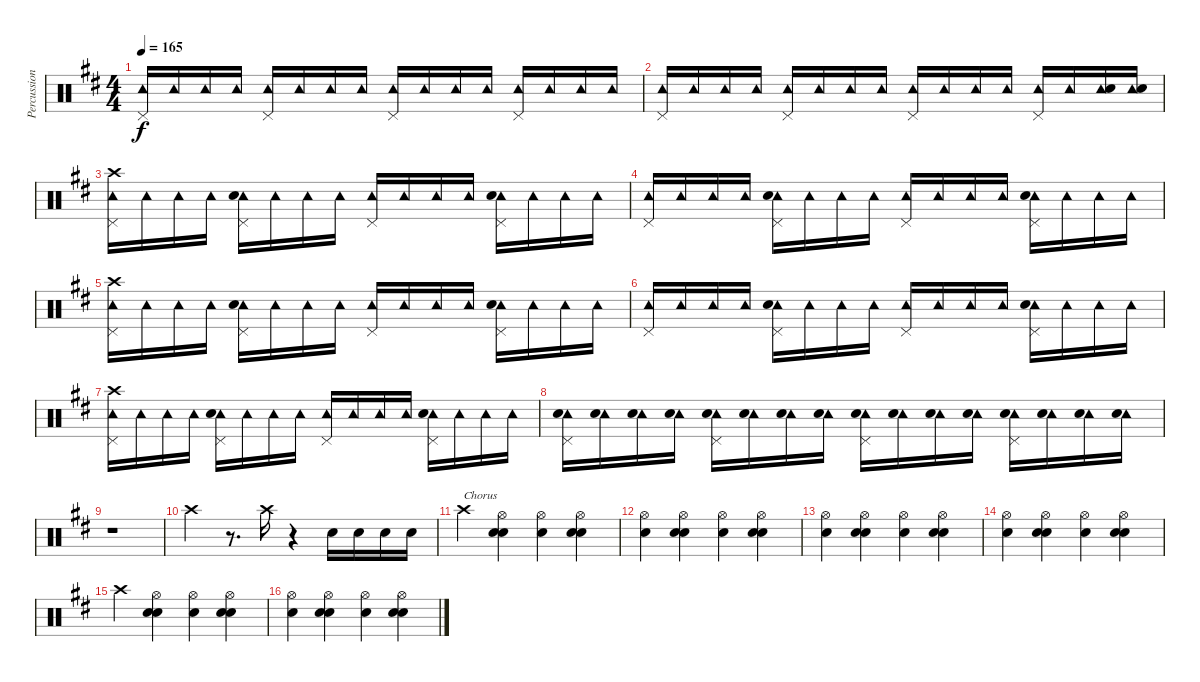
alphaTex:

\track ("Percussion" "Percussion") {instrument percussion}
\staff {score}
\articulation defaults
\ts (4 4)
\tempo 165
\clef neutral
\ks d
("Tambourine (hit)" "Pedal Hi-Hat (hit)").16{dy f} "Tambourine (hit)".16 "Tambourine (hit)".16 "Tambourine (hit)".16 ("Tambourine (hit)" "Pedal Hi-Hat (hit)").16 "Tambourine (hit)".16 "Tambourine (hit)".16 "Tambourine (hit)".16 ("Tambourine (hit)" "Pedal Hi-Hat (hit)").16 "Tambourine (hit)".16 "Tambourine (hit)".16 "Tambourine (hit)".16 ("Tambourine (hit)" "Pedal Hi-Hat (hit)").16 "Tambourine (hit)".16 "Tambourine (hit)".16 "Tambourine (hit)".16 |
("Tambourine (hit)" "Pedal Hi-Hat (hit)").16 "Tambourine (hit)".16 "Tambourine (hit)".16 "Tambourine (hit)".16 ("Tambourine (hit)" "Pedal Hi-Hat (hit)").16 "Tambourine (hit)".16 "Tambourine (hit)".16 "Tambourine (hit)".16 ("Tambourine (hit)" "Pedal Hi-Hat (hit)").16 "Tambourine (hit)".16 "Tambourine (hit)".16 "Tambourine (hit)".16 ("Tambourine (hit)" "Pedal Hi-Hat (hit)").16 "Tambourine (hit)".16 ("Tambourine (hit)" "Snare (hit) 2").16 ("Tambourine (hit)" "Snare (hit) 2").16 |
("Tambourine (hit)" "Pedal Hi-Hat (hit)" "Crash high (hit)").16 "Tambourine (hit)".16 "Tambourine (hit)".16 "Tambourine (hit)".16 ("Tambourine (hit)" "Snare (hit) 2" "Pedal Hi-Hat (hit)").16 "Tambourine (hit)".16 "Tambourine (hit)".16 "Tambourine (hit)".16 ("Tambourine (hit)" "Pedal Hi-Hat (hit)").16 "Tambourine (hit)".16 "Tambourine (hit)".16 "Tambourine (hit)".16 ("Tambourine (hit)" "Pedal Hi-Hat (hit)" "Snare (hit) 2").16 "Tambourine (hit)".16 "Tambourine (hit)".16 "Tambourine (hit)".16 |
("Tambourine (hit)" "Pedal Hi-Hat (hit)").16 "Tambourine (hit)".16 "Tambourine (hit)".16 "Tambourine (hit)".16 ("Tambourine (hit)" "Pedal Hi-Hat (hit)" "Snare (hit) 2").16 "Tambourine (hit)".16 "Tambourine (hit)".16 "Tambourine (hit)".16 ("Tambourine (hit)" "Pedal Hi-Hat (hit)").16 "Tambourine (hit)".16 "Tambourine (hit)".16 "Tambourine (hit)".16 ("Tambourine (hit)" "Pedal Hi-Hat (hit)" "Snare (hit) 2").16 "Tambourine (hit)".16 "Tambourine (hit)".16 "Tambourine (hit)".16 |
("Tambourine (hit)" "Pedal Hi-Hat (hit)" "Crash high (hit)").16 "Tambourine (hit)".16 "Tambourine (hit)".16 "Tambourine (hit)".16 ("Tambourine (hit)" "Pedal Hi-Hat (hit)" "Snare (hit) 2").16 "Tambourine (hit)".16 "Tambourine (hit)".16 "Tambourine (hit)".16 ("Tambourine (hit)" "Pedal Hi-Hat (hit)").16 "Tambourine (hit)".16 "Tambourine (hit)".16 "Tambourine (hit)".16 ("Tambourine (hit)" "Pedal Hi-Hat (hit)" "Snare (hit) 2").16 "Tambourine (hit)".16 "Tambourine (hit)".16 "Tambourine (hit)".16 |
("Tambourine (hit)" "Pedal Hi-Hat (hit)").16 "Tambourine (hit)".16 "Tambourine (hit)".16 "Tambourine (hit)".16 ("Tambourine (hit)" "Pedal Hi-Hat (hit)" "Snare (hit) 2").16 "Tambourine (hit)".16 "Tambourine (hit)".16 "Tambourine (hit)".16 ("Tambourine (hit)" "Pedal Hi-Hat (hit)").16 "Tambourine (hit)".16 "Tambourine (hit)".16 "Tambourine (hit)".16 ("Tambourine (hit)" "Pedal Hi-Hat (hit)" "Snare (hit) 2").16 "Tambourine (hit)".16 "Tambourine (hit)".16 "Tambourine (hit)".16 |
("Tambourine (hit)" "Pedal Hi-Hat (hit)" "Crash high (hit)").16 "Tambourine (hit)".16 "Tambourine (hit)".16 "Tambourine (hit)".16 ("Tambourine (hit)" "Pedal Hi-Hat (hit)" "Snare (hit) 2").16 "Tambourine (hit)".16 "Tambourine (hit)".16 "Tambourine (hit)".16 ("Tambourine (hit)" "Pedal Hi-Hat (hit)").16 "Tambourine (hit)".16 "Tambourine (hit)".16 "Tambourine (hit)".16 ("Tambourine (hit)" "Pedal Hi-Hat (hit)" "Snare (hit) 2").16 "Tambourine (hit)".16 "Tambourine (hit)".16 "Tambourine (hit)".16 |
("Tambourine (hit)" "Pedal Hi-Hat (hit)" "Snare (hit) 2").16 ("Tambourine (hit)" "Snare (hit) 2").16 ("Tambourine (hit)" "Snare (hit) 2").16 ("Tambourine (hit)" "Snare (hit) 2").16 ("Tambourine (hit)" "Pedal Hi-Hat (hit)" "Snare (hit) 2").16 ("Tambourine (hit)" "Snare (hit) 2").16 ("Tambourine (hit)" "Snare (hit) 2").16 ("Tambourine (hit)" "Snare (hit) 2").16 ("Tambourine (hit)" "Pedal Hi-Hat (hit)" "Snare (hit) 2").16 ("Tambourine (hit)" "Snare (hit) 2").16 ("Tambourine (hit)" "Snare (hit) 2").16 ("Tambourine (hit)" "Snare (hit) 2").16 ("Tambourine (hit)" "Pedal Hi-Hat (hit)" "Snare (hit) 2").16 ("Tambourine (hit)" "Snare (hit) 2").16 ("Tambourine (hit)" "Snare (hit) 2").16 ("Tambourine (hit)" "Snare (hit) 2").16 |
r.1 |
"Crash high (hit)".4 r.8{d} "Crash high (hit)".16 r.4 "Snare (hit) 2".16 "Snare (hit) 2".16 "Snare (hit) 2".16 "Snare (hit) 2".16 |
"Crash high (hit)".4{txt "Chorus"} ("Hi-Hat (open)" "Snare (hit) 2" "Electric Snare (hit)").4 ("Hi-Hat (open)" "Snare (hit) 2").4 ("Hi-Hat (open)" "Snare (hit) 2" "Electric Snare (hit)").4 |
("Hi-Hat (open)" "Snare (hit) 2").4 ("Hi-Hat (open)" "Snare (hit) 2" "Electric Snare (hit)").4 ("Hi-Hat (open)" "Snare (hit) 2").4 ("Hi-Hat (open)" "Snare (hit) 2" "Electric Snare (hit)").4 |
("Hi-Hat (open)" "Snare (hit) 2").4 ("Hi-Hat (open)" "Snare (hit) 2" "Electric Snare (hit)").4 ("Hi-Hat (open)" "Snare (hit) 2").4 ("Hi-Hat (open)" "Snare (hit) 2" "Electric Snare (hit)").4 |
("Hi-Hat (open)" "Snare (hit) 2").4 ("Hi-Hat (open)" "Snare (hit) 2" "Electric Snare (hit)").4 ("Hi-Hat (open)" "Snare (hit) 2").4 ("Hi-Hat (open)" "Snare (hit) 2" "Electric Snare (hit)").4 |
"Crash high (hit)".4 ("Hi-Hat (open)" "Snare (hit) 2" "Electric Snare (hit)").4 ("Hi-Hat (open)" "Snare (hit) 2").4 ("Hi-Hat (open)" "Snare (hit) 2" "Electric Snare (hit)").4 |
("Hi-Hat (open)" "Snare (hit) 2").4 ("Hi-Hat (open)" "Snare (hit) 2" "Electric Snare (hit)").4 ("Hi-Hat (open)" "Snare (hit) 2").4 ("Hi-Hat (open)" "Snare (hit) 2" "Electric Snare (hit)").4
